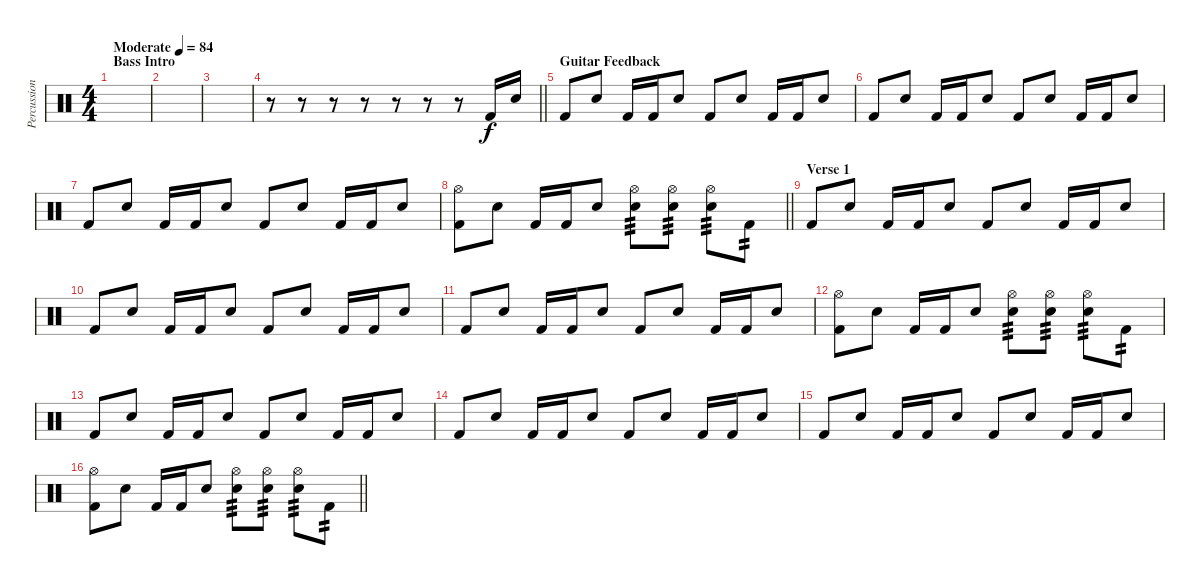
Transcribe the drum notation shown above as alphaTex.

\track ("Percussion" "Percussion") {instrument percussion}
\staff {score}
\articulation defaults
\ts (4 4)
\section ("" "Bass Intro")
\tempo (84 "Moderate")
\clef neutral
\ks c
|
|
|
\barLineRight lightlight
r.8 r.8 r.8 r.8 r.8 r.8 r.8 "Kick (hit) 2".16 "Snare (hit) 2".16 |
\section ("" "Guitar Feedback")
"Kick (hit) 2".8 "Snare (hit) 2".8 "Kick (hit) 2".16 "Kick (hit) 2".16 "Snare (hit) 2".8 "Kick (hit) 2".8 "Snare (hit) 2".8 "Kick (hit) 2".16 "Kick (hit) 2".16 "Snare (hit) 2".8 |
"Kick (hit) 2".8 "Snare (hit) 2".8 "Kick (hit) 2".16 "Kick (hit) 2".16 "Snare (hit) 2".8 "Kick (hit) 2".8 "Snare (hit) 2".8 "Kick (hit) 2".16 "Kick (hit) 2".16 "Snare (hit) 2".8 |
"Kick (hit) 2".8 "Snare (hit) 2".8 "Kick (hit) 2".16 "Kick (hit) 2".16 "Snare (hit) 2".8 "Kick (hit) 2".8 "Snare (hit) 2".8 "Kick (hit) 2".16 "Kick (hit) 2".16 "Snare (hit) 2".8 |
\barLineRight lightlight
("Hi-Hat (open)" "Kick (hit) 2").8 "Snare (hit) 2".8 "Kick (hit) 2".16 "Kick (hit) 2".16 "Snare (hit) 2".8 ("Hi-Hat (open)" "Snare (hit) 2").8{tp 3} ("Hi-Hat (open)" "Snare (hit) 2").8{tp 3} ("Hi-Hat (open)" "Snare (hit) 2").8{tp 3} "Kick (hit) 2".8{tp 2} |
\section ("" "Verse 1")
"Kick (hit) 2".8 "Snare (hit) 2".8 "Kick (hit) 2".16 "Kick (hit) 2".16 "Snare (hit) 2".8 "Kick (hit) 2".8 "Snare (hit) 2".8 "Kick (hit) 2".16 "Kick (hit) 2".16 "Snare (hit) 2".8 |
"Kick (hit) 2".8 "Snare (hit) 2".8 "Kick (hit) 2".16 "Kick (hit) 2".16 "Snare (hit) 2".8 "Kick (hit) 2".8 "Snare (hit) 2".8 "Kick (hit) 2".16 "Kick (hit) 2".16 "Snare (hit) 2".8 |
"Kick (hit) 2".8 "Snare (hit) 2".8 "Kick (hit) 2".16 "Kick (hit) 2".16 "Snare (hit) 2".8 "Kick (hit) 2".8 "Snare (hit) 2".8 "Kick (hit) 2".16 "Kick (hit) 2".16 "Snare (hit) 2".8 |
("Hi-Hat (open)" "Kick (hit) 2").8 "Snare (hit) 2".8 "Kick (hit) 2".16 "Kick (hit) 2".16 "Snare (hit) 2".8 ("Hi-Hat (open)" "Snare (hit) 2").8{tp 3} ("Hi-Hat (open)" "Snare (hit) 2").8{tp 3} ("Hi-Hat (open)" "Snare (hit) 2").8{tp 3} "Kick (hit) 2".8{tp 2} |
"Kick (hit) 2".8 "Snare (hit) 2".8 "Kick (hit) 2".16 "Kick (hit) 2".16 "Snare (hit) 2".8 "Kick (hit) 2".8 "Snare (hit) 2".8 "Kick (hit) 2".16 "Kick (hit) 2".16 "Snare (hit) 2".8 |
"Kick (hit) 2".8 "Snare (hit) 2".8 "Kick (hit) 2".16 "Kick (hit) 2".16 "Snare (hit) 2".8 "Kick (hit) 2".8 "Snare (hit) 2".8 "Kick (hit) 2".16 "Kick (hit) 2".16 "Snare (hit) 2".8 |
"Kick (hit) 2".8 "Snare (hit) 2".8 "Kick (hit) 2".16 "Kick (hit) 2".16 "Snare (hit) 2".8 "Kick (hit) 2".8 "Snare (hit) 2".8 "Kick (hit) 2".16 "Kick (hit) 2".16 "Snare (hit) 2".8 |
\barLineRight lightlight
("Hi-Hat (open)" "Kick (hit) 2").8 "Snare (hit) 2".8 "Kick (hit) 2".16 "Kick (hit) 2".16 "Snare (hit) 2".8 ("Hi-Hat (open)" "Snare (hit) 2").8{tp 3} ("Hi-Hat (open)" "Snare (hit) 2").8{tp 3} ("Hi-Hat (open)" "Snare (hit) 2").8{tp 3} "Kick (hit) 2".8{tp 2}
